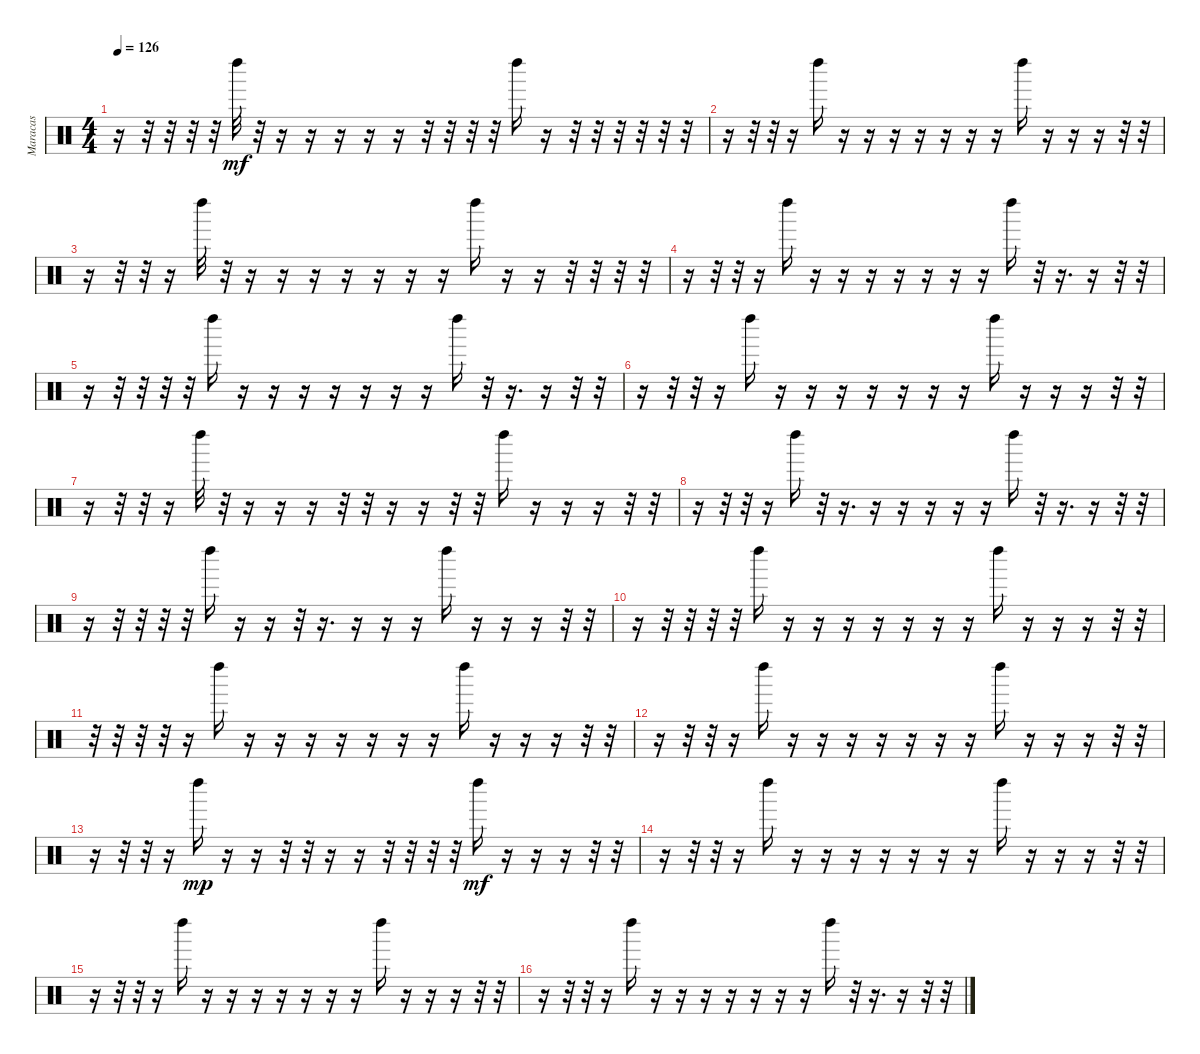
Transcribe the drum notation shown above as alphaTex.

\track ("Maracas" "Maracas") {instrument percussion}
\staff {score}
\articulation defaults
\ts (4 4)
\tempo 126
\clef neutral
\ks c
r.16{dy mf} r.32 r.32 r.32 r.32 "Left Maraca (hit)".32 r.32 r.16 r.16 r.16 r.16 r.16 r.32 r.32 r.32 r.32 "Left Maraca (hit)".16 r.16 r.32 r.32 r.32 r.32 r.32 r.32 |
r.16 r.32 r.32 r.16 "Left Maraca (hit)".16 r.16 r.16 r.16 r.16 r.16 r.16 r.16 "Left Maraca (hit)".16 r.16 r.16 r.16 r.32 r.32 |
r.16 r.32 r.32 r.16 "Left Maraca (hit)".32 r.32 r.16 r.16 r.16 r.16 r.16 r.16 r.16 "Left Maraca (hit)".16 r.16 r.16 r.32 r.32 r.32 r.32 |
r.16 r.32 r.32 r.16 "Left Maraca (hit)".16 r.16 r.16 r.16 r.16 r.16 r.16 r.16 "Left Maraca (hit)".16 r.32 r.16{d} r.16 r.32 r.32 |
r.16 r.32 r.32 r.32 r.32 "Left Maraca (hit)".16 r.16 r.16 r.16 r.16 r.16 r.16 r.16 "Left Maraca (hit)".16 r.32 r.16{d} r.16 r.32 r.32 |
r.16 r.32 r.32 r.16 "Left Maraca (hit)".16 r.16 r.16 r.16 r.16 r.16 r.16 r.16 "Left Maraca (hit)".16 r.16 r.16 r.16 r.32 r.32 |
r.16 r.32 r.32 r.16 "Left Maraca (hit)".32 r.32 r.16 r.16 r.16 r.32 r.32 r.16 r.16 r.32 r.32 "Left Maraca (hit)".16 r.16 r.16 r.16 r.32 r.32 |
r.16 r.32 r.32 r.16 "Left Maraca (hit)".16 r.32 r.16{d} r.16 r.16 r.16 r.16 r.16 "Left Maraca (hit)".16 r.32 r.16{d} r.16 r.32 r.32 |
r.16 r.32 r.32 r.32 r.32 "Left Maraca (hit)".16 r.16 r.16 r.32 r.16{d} r.16 r.16 r.16 "Left Maraca (hit)".16 r.16 r.16 r.16 r.32 r.32 |
r.16 r.32 r.32 r.32 r.32 "Left Maraca (hit)".16 r.16 r.16 r.16 r.16 r.16 r.16 r.16 "Left Maraca (hit)".16 r.16 r.16 r.16 r.32 r.32 |
r.32 r.32 r.32 r.32 r.16 "Left Maraca (hit)".16 r.16 r.16 r.16 r.16 r.16 r.16 r.16 "Left Maraca (hit)".16 r.16 r.16 r.16 r.32 r.32 |
r.16 r.32 r.32 r.16 "Left Maraca (hit)".16 r.16 r.16 r.16 r.16 r.16 r.16 r.16 "Left Maraca (hit)".16 r.16 r.16 r.16 r.32 r.32 |
r.16 r.32 r.32 r.16 "Left Maraca (hit)".16{dy mp} r.16 r.16 r.32 r.32 r.16 r.16 r.32 r.32 r.32 r.32 "Left Maraca (hit)".16{dy mf} r.16 r.16 r.16 r.32 r.32 |
r.16 r.32 r.32 r.16 "Left Maraca (hit)".16 r.16 r.16 r.16 r.16 r.16 r.16 r.16 "Left Maraca (hit)".16 r.16 r.16 r.16 r.32 r.32 |
r.16 r.32 r.32 r.16 "Left Maraca (hit)".16 r.16 r.16 r.16 r.16 r.16 r.16 r.16 "Left Maraca (hit)".16 r.16 r.16 r.16 r.32 r.32 |
r.16 r.32 r.32 r.16 "Left Maraca (hit)".16 r.16 r.16 r.16 r.16 r.16 r.16 r.16 "Left Maraca (hit)".16 r.32 r.16{d} r.16 r.32 r.32
